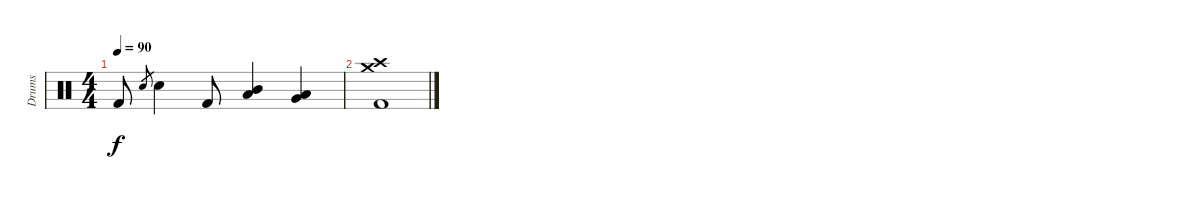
\track ("Drums " "Drums ") {instrument percussion}
\staff {score}
\articulation defaults
\ts (4 4)
\tempo 90
\clef neutral
\ks c "Kick (hit) 2".8{dy f} "Electric Snare (hit)".8{gr} "Electric Snare (hit)".4 "Kick (hit) 2".8
("Mid Tom (hit)" "Low Tom (hit)").4 ("Low Tom (hit)" "Very Low Tom (hit)").4 |
("Crash medium (hit)" "Crash high (hit)" "Kick (hit) 2").1
